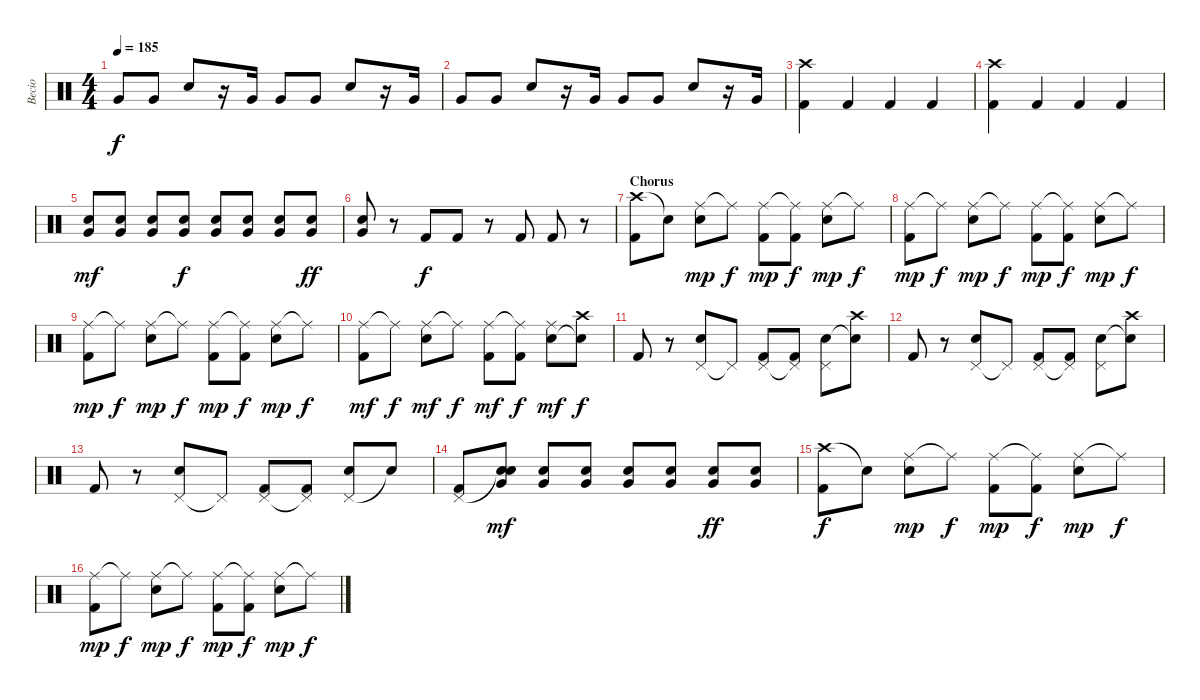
\track ("Becio" "Becio") {instrument percussion}
\staff {score}
\articulation defaults
\ts (4 4)
\tempo 185
\clef neutral
\ks c "Very Low Tom (hit)".8{dy f} "Very Low Tom (hit)".8 "Electric Snare (hit)".8
r.16 "Very Low Tom (hit)".16 "Very Low Tom (hit)".8 "Very Low Tom (hit)".8 "Electric Snare (hit)".8 r.16 "Very Low Tom (hit)".16 |
"Very Low Tom (hit)".8 "Very Low Tom (hit)".8 "Electric Snare (hit)".8 r.16 "Very Low Tom (hit)".16 "Very Low Tom (hit)".8 "Very Low Tom (hit)".8 "Electric Snare (hit)".8 r.16 "Very Low Tom (hit)".16 |
("Crash high (hit)" "Kick (hit) 2").4 "Kick (hit) 2".4 "Kick (hit) 2".4 "Kick (hit) 2".4 |
("Crash high (hit)" "Kick (hit) 2").4 "Kick (hit) 2".4 "Kick (hit) 2".4 "Kick (hit) 2".4 |
("Very Low Tom (hit)" "Electric Snare (hit)").8{dy mf} ("Very Low Tom (hit)" "Electric Snare (hit)").8 ("Very Low Tom (hit)" "Electric Snare (hit)").8 ("Very Low Tom (hit)" "Electric Snare (hit)").8{dy f} ("Very Low Tom (hit)" "Electric Snare (hit)").8 ("Very Low Tom (hit)" "Electric Snare (hit)").8 ("Very Low Tom (hit)" "Electric Snare (hit)").8 ("Very Low Tom (hit)" "Electric Snare (hit)").8{dy ff} |
("Very Low Tom (hit)" "Electric Snare (hit)").8 r.8 "Kick (hit) 2".8{dy f} "Kick (hit) 2".8 r.8 "Kick (hit) 2".8 "Kick (hit) 2".8 r.8 |
\section ("" "Chorus")
("Crash high (hit)" "Kick (hit) 2").8 "Snare (hit)"{t}.8 ("Ride (middle)" "Electric Snare (hit)").8{dy mp} "Ride (middle)"{t}.8{dy f} ("Ride (middle)" "Kick (hit) 2").8{dy mp} ("Ride (middle)"{t} "Kick (hit) 2").8{dy f} ("Ride (middle)" "Electric Snare (hit)").8{dy mp} "Ride (middle)"{t}.8{dy f} |
("Ride (middle)" "Kick (hit) 2").8{dy mp} "Ride (middle)"{t}.8{dy f} ("Ride (middle)" "Electric Snare (hit)").8{dy mp} "Ride (middle)"{t}.8{dy f} ("Ride (middle)" "Kick (hit) 2").8{dy mp} ("Ride (middle)"{t} "Kick (hit) 2").8{dy f} ("Ride (middle)" "Electric Snare (hit)").8{dy mp} "Ride (middle)"{t}.8{dy f} |
("Ride (middle)" "Kick (hit) 2").8{dy mp} "Ride (middle)"{t}.8{dy f} ("Ride (middle)" "Electric Snare (hit)").8{dy mp} "Ride (middle)"{t}.8{dy f} ("Ride (middle)" "Kick (hit) 2").8{dy mp} ("Ride (middle)"{t} "Kick (hit) 2").8{dy f} ("Ride (middle)" "Electric Snare (hit)").8{dy mp} "Ride (middle)"{t}.8{dy f} |
("Ride (middle)" "Kick (hit) 2").8{dy mf} "Ride (middle)"{t}.8{dy f} ("Ride (middle)" "Electric Snare (hit)").8{dy mf} "Ride (middle)"{t}.8{dy f} ("Ride (middle)" "Kick (hit) 2").8{dy mf} ("Ride (middle)"{t} "Kick (hit) 2").8{dy f} ("Ride (middle)" "Electric Snare (hit)").8{dy mf} ("Crash high (hit)" "Snare (hit)"{t}).8{dy f} |
"Kick (hit) 2".8 r.8 ("Pedal Hi-Hat (hit)" "Electric Snare (hit)").8 "Pedal Hi-Hat (hit)"{t}.8 ("Pedal Hi-Hat (hit)" "Kick (hit) 2").8 ("Pedal Hi-Hat (hit)"{t} "Kick (hit) 2").8 ("Pedal Hi-Hat (hit)" "Electric Snare (hit)").8 ("Crash high (hit)" "Snare (hit)"{t}).8 |
"Kick (hit) 2".8 r.8 ("Pedal Hi-Hat (hit)" "Electric Snare (hit)").8 "Pedal Hi-Hat (hit)"{t}.8 ("Pedal Hi-Hat (hit)" "Kick (hit) 2").8 ("Pedal Hi-Hat (hit)"{t} "Kick (hit) 2").8 ("Pedal Hi-Hat (hit)" "Electric Snare (hit)").8 ("Crash high (hit)" "Snare (hit)"{t}).8 |
"Kick (hit) 2".8 r.8 ("Pedal Hi-Hat (hit)" "Electric Snare (hit)").8 "Pedal Hi-Hat (hit)"{t}.8 ("Pedal Hi-Hat (hit)" "Kick (hit) 2").8 ("Pedal Hi-Hat (hit)"{t} "Kick (hit) 2").8 ("Pedal Hi-Hat (hit)" "Electric Snare (hit)").8 "Snare (hit)"{t}.8 |
("Pedal Hi-Hat (hit)" "Kick (hit) 2").8 ("Snare (hit)"{t} "Electric Snare (hit)" "Very Low Tom (hit)").8{dy mf} ("Electric Snare (hit)" "Very Low Tom (hit)").8 ("Electric Snare (hit)" "Very Low Tom (hit)").8 ("Electric Snare (hit)" "Very Low Tom (hit)").8 ("Electric Snare (hit)" "Very Low Tom (hit)").8 ("Electric Snare (hit)" "Very Low Tom (hit)").8{dy ff} ("Electric Snare (hit)" "Very Low Tom (hit)").8 |
("Crash high (hit)" "Kick (hit) 2").8{dy f} "Snare (hit)"{t}.8 ("Ride (middle)" "Electric Snare (hit)").8{dy mp} "Ride (middle)"{t}.8{dy f} ("Ride (middle)" "Kick (hit) 2").8{dy mp} ("Ride (middle)"{t} "Kick (hit) 2").8{dy f} ("Ride (middle)" "Electric Snare (hit)").8{dy mp} "Ride (middle)"{t}.8{dy f} |
("Ride (middle)" "Kick (hit) 2").8{dy mp} "Ride (middle)"{t}.8{dy f} ("Ride (middle)" "Electric Snare (hit)").8{dy mp} "Ride (middle)"{t}.8{dy f} ("Ride (middle)" "Kick (hit) 2").8{dy mp} ("Ride (middle)"{t} "Kick (hit) 2").8{dy f} ("Ride (middle)" "Electric Snare (hit)").8{dy mp} "Ride (middle)"{t}.8{dy f}
